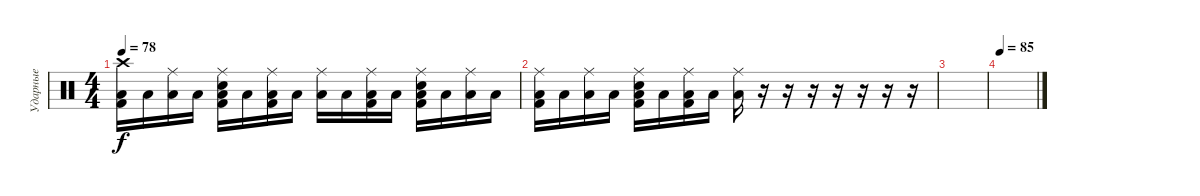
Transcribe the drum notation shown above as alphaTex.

\track ("Ударные" "Ударные") {instrument percussion}
\staff {score}
\articulation defaults
\ts (4 4)
\tempo 78
\clef neutral
\ks c
("Crash high (hit)" "Low Tom (hit)" "Kick (hit) 2").16{dy f} "Low Tom (hit)".16 ("Ride (middle)" "Low Tom (hit)").16 "Low Tom (hit)".16 ("Ride (middle)" "Electric Snare (hit)" "Low Tom (hit)" "Kick (hit) 2").16 "Low Tom (hit)".16 ("Ride (middle)" "Low Tom (hit)" "Kick (hit) 2").16 "Low Tom (hit)".16 ("Ride (middle)" "Low Tom (hit)").16 "Low Tom (hit)".16 ("Ride (middle)" "Low Tom (hit)" "Kick (hit) 2").16 "Low Tom (hit)".16 ("Ride (middle)" "Electric Snare (hit)" "Low Tom (hit)" "Kick (hit) 2").16 "Low Tom (hit)".16 ("Ride (middle)" "Low Tom (hit)").16 "Low Tom (hit)".16 |
("Ride (middle)" "Low Tom (hit)" "Kick (hit) 2").16 "Low Tom (hit)".16 ("Ride (middle)" "Low Tom (hit)").16 "Low Tom (hit)".16 ("Ride (middle)" "Electric Snare (hit)" "Low Tom (hit)" "Kick (hit) 2").16 "Low Tom (hit)".16 ("Ride (middle)" "Low Tom (hit)" "Kick (hit) 2").16 "Low Tom (hit)".16 ("Ride (middle)" "Low Tom (hit)").16 r.16 r.16 r.16 r.16 r.16 r.16 r.16 |
|
\tempo 85
